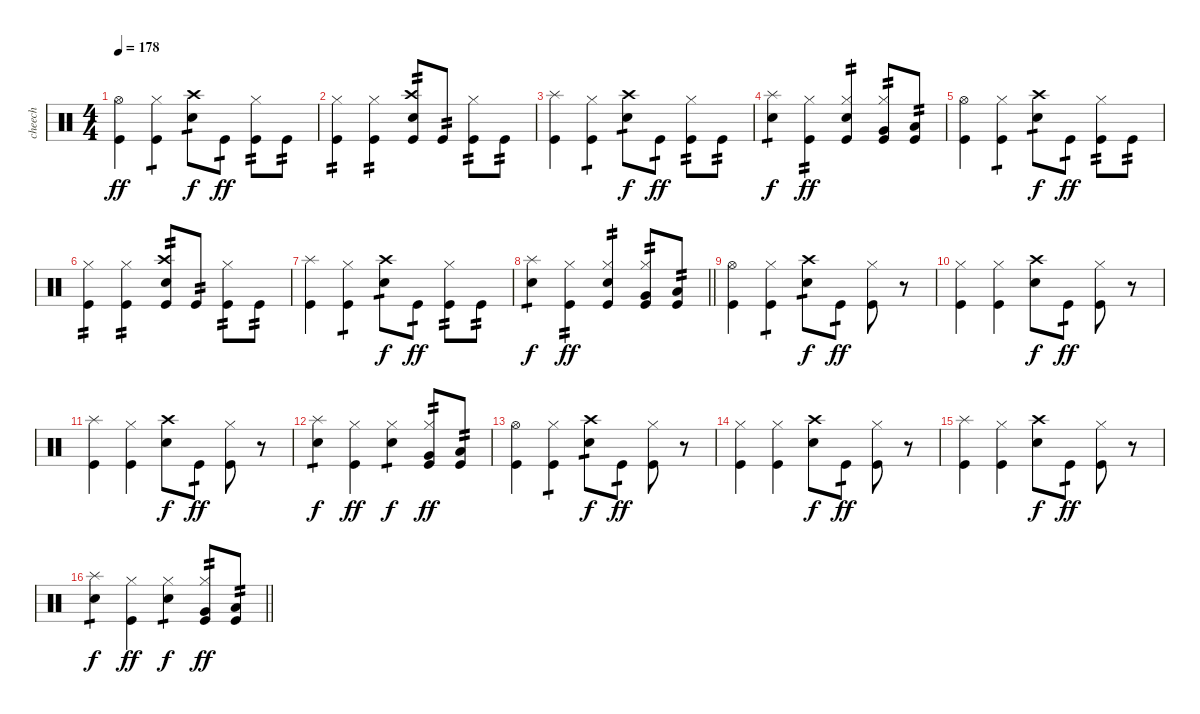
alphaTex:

\track ("cheech" "cheech") {solo instrument percussion}
\staff {score}
\articulation defaults
\ts (4 4)
\tempo 178
\clef neutral
\ks c
("Hi-Hat (open)" "Kick (hit)").4{dy ff} ("Hi-Hat (closed)" "Kick (hit)").4{tp 1} ("Crash high (hit)" "Electric Snare (hit)").8{tp 1 dy f} "Kick (hit)".8{tp 1 dy ff} ("Hi-Hat (closed)" "Kick (hit)").8{tp 2} "Kick (hit)".8{tp 2} |
("Hi-Hat (closed)" "Kick (hit)").4{tp 2} ("Hi-Hat (closed)" "Kick (hit)").4{tp 2} ("Crash high (hit)" "Electric Snare (hit)" "Kick (hit)").8{tp 2} "Kick (hit)".8{tp 2} ("Hi-Hat (closed)" "Kick (hit)").8{tp 2} "Kick (hit)".8{tp 2} |
("Splash (hit)" "Kick (hit)").4 ("Hi-Hat (closed)" "Kick (hit)").4{tp 1} ("Crash high (hit)" "Electric Snare (hit)").8{tp 1 dy f} "Kick (hit)".8{tp 1 dy ff} ("Hi-Hat (closed)" "Kick (hit)").8{tp 2} "Kick (hit)".8{tp 2} |
("Splash (hit)" "Electric Snare (hit)").4{tp 1 dy f} ("Hi-Hat (closed)" "Kick (hit)").4{tp 2 dy ff} ("Hi-Hat (closed)" "Electric Snare (hit)" "Kick (hit)").4{tp 2} ("Hi-Hat (closed)" "Very Low Tom (hit)" "Kick (hit)").8{tp 2} ("Low Floor Tom (hit)" "Kick (hit)").8{tp 2} |
("Hi-Hat (open)" "Kick (hit)").4 ("Hi-Hat (closed)" "Kick (hit)").4{tp 1} ("Crash high (hit)" "Electric Snare (hit)").8{tp 1 dy f} "Kick (hit)".8{tp 1 dy ff} ("Hi-Hat (closed)" "Kick (hit)").8{tp 2} "Kick (hit)".8{tp 2} |
("Hi-Hat (closed)" "Kick (hit)").4{tp 2} ("Hi-Hat (closed)" "Kick (hit)").4{tp 2} ("Crash high (hit)" "Electric Snare (hit)" "Kick (hit)").8{tp 2} "Kick (hit)".8{tp 2} ("Hi-Hat (closed)" "Kick (hit)").8{tp 2} "Kick (hit)".8{tp 2} |
("Splash (hit)" "Kick (hit)").4 ("Hi-Hat (closed)" "Kick (hit)").4{tp 1} ("Crash high (hit)" "Electric Snare (hit)").8{tp 1 dy f} "Kick (hit)".8{tp 1 dy ff} ("Hi-Hat (closed)" "Kick (hit)").8{tp 2} "Kick (hit)".8{tp 2} |
\barLineRight lightlight
("Splash (hit)" "Electric Snare (hit)").4{tp 1 dy f} ("Hi-Hat (closed)" "Kick (hit)").4{tp 2 dy ff} ("Hi-Hat (closed)" "Electric Snare (hit)" "Kick (hit)").4{tp 2} ("Hi-Hat (closed)" "Very Low Tom (hit)" "Kick (hit)").8{tp 2} ("Low Floor Tom (hit)" "Kick (hit)").8{tp 2} |
("Hi-Hat (open)" "Kick (hit)").4 ("Hi-Hat (closed)" "Kick (hit)").4{tp 1} ("Crash high (hit)" "Electric Snare (hit)").8{tp 1 dy f} "Kick (hit)".8{tp 1 dy ff} ("Hi-Hat (closed)" "Kick (hit)").8 r.8 |
("Hi-Hat (closed)" "Kick (hit)").4 ("Hi-Hat (closed)" "Kick (hit)").4 ("Crash high (hit)" "Electric Snare (hit)").8{dy f} "Kick (hit)".8{tp 1 dy ff} ("Hi-Hat (closed)" "Kick (hit)").8 r.8 |
("Splash (hit)" "Kick (hit)").4 ("Hi-Hat (closed)" "Kick (hit)").4 ("Crash high (hit)" "Electric Snare (hit)").8{dy f} "Kick (hit)".8{tp 1 dy ff} ("Hi-Hat (closed)" "Kick (hit)").8 r.8 |
("Splash (hit)" "Electric Snare (hit)").4{tp 1 dy f} ("Hi-Hat (closed)" "Kick (hit)").4{dy ff} ("Hi-Hat (closed)" "Electric Snare (hit)").4{tp 1 dy f} ("Hi-Hat (closed)" "Very Low Tom (hit)" "Kick (hit)").8{tp 2 dy ff} ("Low Floor Tom (hit)" "Kick (hit)").8{tp 2} |
("Hi-Hat (open)" "Kick (hit)").4 ("Hi-Hat (closed)" "Kick (hit)").4{tp 1} ("Crash high (hit)" "Electric Snare (hit)").8{tp 1 dy f} "Kick (hit)".8{tp 1 dy ff} ("Hi-Hat (closed)" "Kick (hit)").8 r.8 |
("Hi-Hat (closed)" "Kick (hit)").4 ("Hi-Hat (closed)" "Kick (hit)").4 ("Crash high (hit)" "Electric Snare (hit)").8{dy f} "Kick (hit)".8{tp 1 dy ff} ("Hi-Hat (closed)" "Kick (hit)").8 r.8 |
("Splash (hit)" "Kick (hit)").4 ("Hi-Hat (closed)" "Kick (hit)").4 ("Crash high (hit)" "Electric Snare (hit)").8{dy f} "Kick (hit)".8{tp 1 dy ff} ("Hi-Hat (closed)" "Kick (hit)").8 r.8 |
\barLineRight lightlight
("Splash (hit)" "Electric Snare (hit)").4{tp 1 dy f} ("Hi-Hat (closed)" "Kick (hit)").4{dy ff} ("Hi-Hat (closed)" "Electric Snare (hit)").4{tp 1 dy f} ("Hi-Hat (closed)" "Very Low Tom (hit)" "Kick (hit)").8{tp 2 dy ff} ("Low Floor Tom (hit)" "Kick (hit)").8{tp 2}
